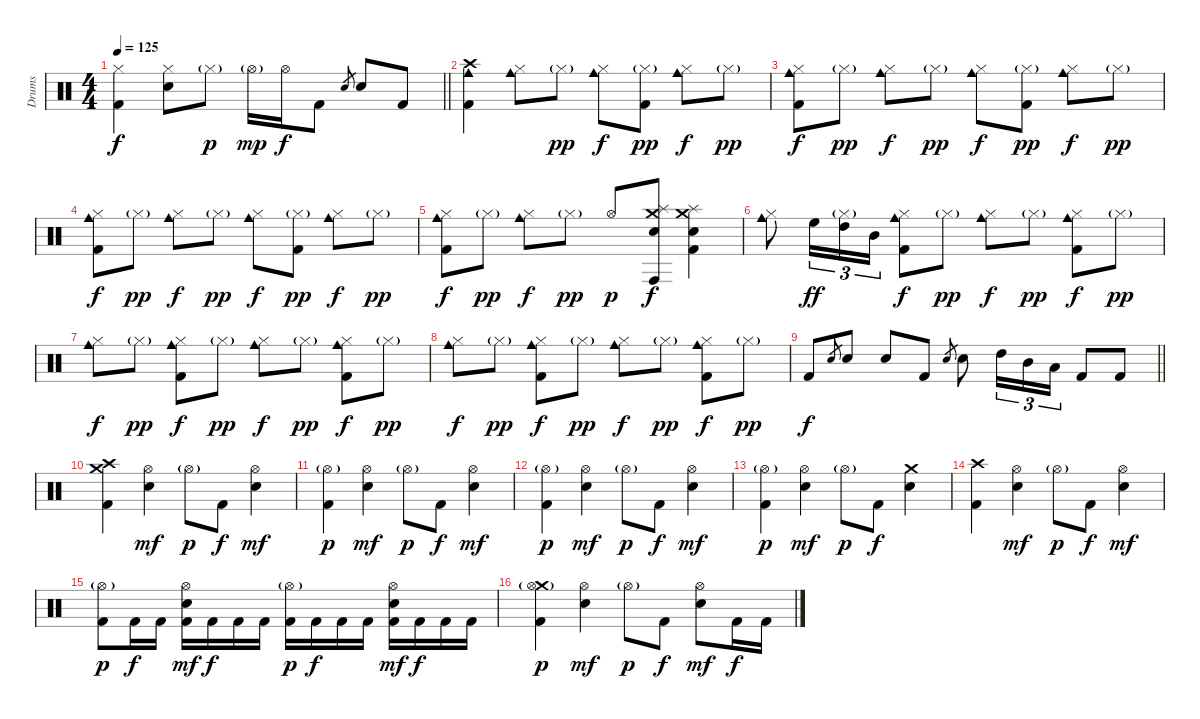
\track ("Drums" "Drums") {instrument percussion}
\staff {score}
\articulation defaults
\ts (4 4)
\tempo 125
\clef neutral
\barLineRight lightlight
\ks c
("Hi-Hat (closed)" "Kick (hit) 2").4{dy f} ("Hi-Hat (closed)" "Electric Snare (hit)").8 "Hi-Hat (closed)"{g}.8{dy p} "Hi-Hat (open)"{g}.16{dy mp} "Hi-Hat (open)".16{dy f} "Kick (hit) 2".8 "Electric Snare (hit)".8{gr} "Electric Snare (hit)".8 "Kick (hit) 2".8 |
("Crash high (hit)" "Cowbell medium (hit)" "Kick (hit) 2").4 ("Hi-Hat (closed)" "Cowbell medium (hit)").8 "Hi-Hat (closed)"{g}.8{dy pp} ("Hi-Hat (closed)" "Cowbell medium (hit)").8{dy f} ("Hi-Hat (closed)"{g} "Kick (hit) 2").8{dy pp} ("Hi-Hat (closed)" "Cowbell medium (hit)").8{dy f} "Hi-Hat (closed)"{g}.8{dy pp} |
("Hi-Hat (closed)" "Cowbell medium (hit)" "Kick (hit) 2").8{dy f} "Hi-Hat (closed)"{g}.8{dy pp} ("Hi-Hat (closed)" "Cowbell medium (hit)").8{dy f} "Hi-Hat (closed)"{g}.8{dy pp} ("Hi-Hat (closed)" "Cowbell medium (hit)").8{dy f} ("Hi-Hat (closed)"{g} "Kick (hit) 2").8{dy pp} ("Hi-Hat (closed)" "Cowbell medium (hit)").8{dy f} "Hi-Hat (closed)"{g}.8{dy pp} |
("Hi-Hat (closed)" "Cowbell medium (hit)" "Kick (hit) 2").8{dy f} "Hi-Hat (closed)"{g}.8{dy pp} ("Hi-Hat (closed)" "Cowbell medium (hit)").8{dy f} "Hi-Hat (closed)"{g}.8{dy pp} ("Hi-Hat (closed)" "Cowbell medium (hit)").8{dy f} ("Hi-Hat (closed)"{g} "Kick (hit) 2").8{dy pp} ("Hi-Hat (closed)" "Cowbell medium (hit)").8{dy f} "Hi-Hat (closed)"{g}.8{dy pp} |
("Hi-Hat (closed)" "Cowbell medium (hit)" "Kick (hit) 2").8{dy f} "Hi-Hat (closed)"{g}.8{dy pp} ("Hi-Hat (closed)" "Cowbell medium (hit)").8{dy f} "Hi-Hat (closed)"{g}.8{dy pp} "Hi-Hat (open)".8{dy p} ("Crash medium (hit)" "Splash (hit)" "Electric Snare (hit)" "Conga high (hit)").8{dy f} ("Crash medium (hit)" "Splash (hit)" "Electric Snare (hit)" "Kick (hit) 2").4 |
("Hi-Hat (closed)" "Cowbell medium (hit)").8 "High Floor Tom (hit)".16{tu (3 2) dy ff} ("Hi-Hat (closed)"{g} "High Tom (hit)").16{tu (3 2)} "Mid Tom (hit)".16{tu (3 2)} ("Hi-Hat (closed)" "Cowbell medium (hit)" "Kick (hit) 2").8{dy f} "Hi-Hat (closed)"{g}.8{dy pp} ("Hi-Hat (closed)" "Cowbell medium (hit)").8{dy f} "Hi-Hat (closed)"{g}.8{dy pp} ("Hi-Hat (closed)" "Cowbell medium (hit)" "Kick (hit) 2").8{dy f} "Hi-Hat (closed)"{g}.8{dy pp} |
("Hi-Hat (closed)" "Cowbell medium (hit)").8{dy f} "Hi-Hat (closed)"{g}.8{dy pp} ("Hi-Hat (closed)" "Cowbell medium (hit)" "Kick (hit) 2").8{dy f} "Hi-Hat (closed)"{g}.8{dy pp} ("Hi-Hat (closed)" "Cowbell medium (hit)").8{dy f} "Hi-Hat (closed)"{g}.8{dy pp} ("Hi-Hat (closed)" "Cowbell medium (hit)" "Kick (hit) 2").8{dy f} "Hi-Hat (closed)"{g}.8{dy pp} |
("Hi-Hat (closed)" "Cowbell medium (hit)").8{dy f} "Hi-Hat (closed)"{g}.8{dy pp} ("Hi-Hat (closed)" "Cowbell medium (hit)" "Kick (hit) 2").8{dy f} "Hi-Hat (closed)"{g}.8{dy pp} ("Hi-Hat (closed)" "Cowbell medium (hit)").8{dy f} "Hi-Hat (closed)"{g}.8{dy pp} ("Hi-Hat (closed)" "Cowbell medium (hit)" "Kick (hit) 2").8{dy f} "Hi-Hat (closed)"{g}.8{dy pp} |
\barLineRight lightlight "Kick (hit) 2".8{dy f} "Electric Snare (hit)".8{gr} "Electric Snare (hit)".8 "Electric Snare (hit)".8 "Kick (hit) 2".8 "Electric Snare (hit)".8{gr} "Electric Snare (hit)".8 "High Tom (hit)".16{tu (3 2)} "Mid Tom (hit)".16{tu (3 2)} "Low Tom (hit)".16{tu (3 2)} "Kick (hit) 2".8 "Kick (hit) 2".8
|
("Crash high (hit)" "Crash medium (hit)" "Kick (hit) 2").4 ("Hi-Hat (open)" "Electric Snare (hit)").4{dy mf} "Hi-Hat (open)"{g}.8{dy p} "Kick (hit) 2".8{dy f} ("Hi-Hat (open)" "Electric Snare (hit)").4{dy mf} |
("Hi-Hat (open)"{g} "Kick (hit) 2").4{dy p} ("Hi-Hat (open)" "Electric Snare (hit)").4{dy mf} "Hi-Hat (open)"{g}.8{dy p} "Kick (hit) 2".8{dy f} ("Hi-Hat (open)" "Electric Snare (hit)").4{dy mf} |
("Hi-Hat (open)"{g} "Kick (hit) 2").4{dy p} ("Hi-Hat (open)" "Electric Snare (hit)").4{dy mf} "Hi-Hat (open)"{g}.8{dy p} "Kick (hit) 2".8{dy f} ("Hi-Hat (open)" "Electric Snare (hit)").4{dy mf} |
("Hi-Hat (open)"{g} "Kick (hit) 2").4{dy p} ("Hi-Hat (open)" "Electric Snare (hit)").4{dy mf} "Hi-Hat (open)"{g}.8{dy p} "Kick (hit) 2".8{dy f} ("Crash medium (hit)" "Electric Snare (hit)").4 |
("Crash high (hit)" "Kick (hit) 2").4 ("Hi-Hat (open)" "Electric Snare (hit)").4{dy mf} "Hi-Hat (open)"{g}.8{dy p} "Kick (hit) 2".8{dy f} ("Hi-Hat (open)" "Electric Snare (hit)").4{dy mf} |
("Hi-Hat (open)"{g} "Kick (hit) 2").8{dy p} "Kick (hit) 2".16{dy f} "Kick (hit) 2".16 ("Hi-Hat (open)" "Electric Snare (hit)" "Kick (hit) 2").16{dy mf} "Kick (hit) 2".16{dy f} "Kick (hit) 2".16 "Kick (hit) 2".16 ("Hi-Hat (open)"{g} "Kick (hit) 2").16{dy p} "Kick (hit) 2".16{dy f} "Kick (hit) 2".16 "Kick (hit) 2".16 ("Hi-Hat (open)" "Electric Snare (hit)" "Kick (hit) 2").16{dy mf} "Kick (hit) 2".16{dy f} "Kick (hit) 2".16 "Kick (hit) 2".16 |
("Crash medium (hit)" "Hi-Hat (open)"{g} "Kick (hit) 2").4{dy p} ("Hi-Hat (open)" "Electric Snare (hit)").4{dy mf} "Hi-Hat (open)"{g}.8{dy p} "Kick (hit) 2".8{dy f} ("Hi-Hat (open)" "Electric Snare (hit)").8{dy mf} "Kick (hit) 2".16{dy f} "Kick (hit) 2".16
